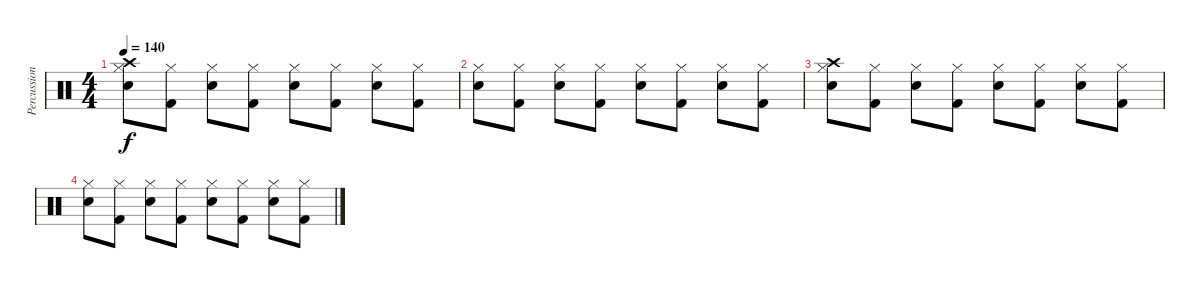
\track ("Percussion" "Percussion") {instrument percussion}
\staff {score}
\articulation defaults
\ts (4 4)
\tempo 140
\clef neutral
\ks c
("Snare (hit) 2" "Crash high (hit)" "Hi-Hat (closed)").8{dy f} ("Kick (hit) 2" "Hi-Hat (closed)").8 ("Snare (hit) 2" "Hi-Hat (closed)").8 ("Kick (hit) 2" "Hi-Hat (closed)").8 ("Snare (hit) 2" "Hi-Hat (closed)").8 ("Kick (hit) 2" "Hi-Hat (closed)").8 ("Snare (hit) 2" "Hi-Hat (closed)").8 ("Kick (hit) 2" "Hi-Hat (closed)").8 |
("Snare (hit) 2" "Hi-Hat (closed)").8 ("Kick (hit) 2" "Hi-Hat (closed)").8 ("Snare (hit) 2" "Hi-Hat (closed)").8 ("Kick (hit) 2" "Hi-Hat (closed)").8 ("Snare (hit) 2" "Hi-Hat (closed)").8 ("Kick (hit) 2" "Hi-Hat (closed)").8 ("Snare (hit) 2" "Hi-Hat (closed)").8 ("Kick (hit) 2" "Hi-Hat (closed)").8 |
("Snare (hit) 2" "Crash high (hit)" "Hi-Hat (closed)").8 ("Kick (hit) 2" "Hi-Hat (closed)").8 ("Snare (hit) 2" "Hi-Hat (closed)").8 ("Kick (hit) 2" "Hi-Hat (closed)").8 ("Snare (hit) 2" "Hi-Hat (closed)").8 ("Kick (hit) 2" "Hi-Hat (closed)").8 ("Snare (hit) 2" "Hi-Hat (closed)").8 ("Kick (hit) 2" "Hi-Hat (closed)").8 |
("Snare (hit) 2" "Hi-Hat (closed)").8 ("Kick (hit) 2" "Hi-Hat (closed)").8 ("Snare (hit) 2" "Hi-Hat (closed)").8 ("Kick (hit) 2" "Hi-Hat (closed)").8 ("Snare (hit) 2" "Hi-Hat (closed)").8 ("Kick (hit) 2" "Hi-Hat (closed)").8 ("Snare (hit) 2" "Hi-Hat (closed)").8 ("Kick (hit) 2" "Hi-Hat (closed)").8
